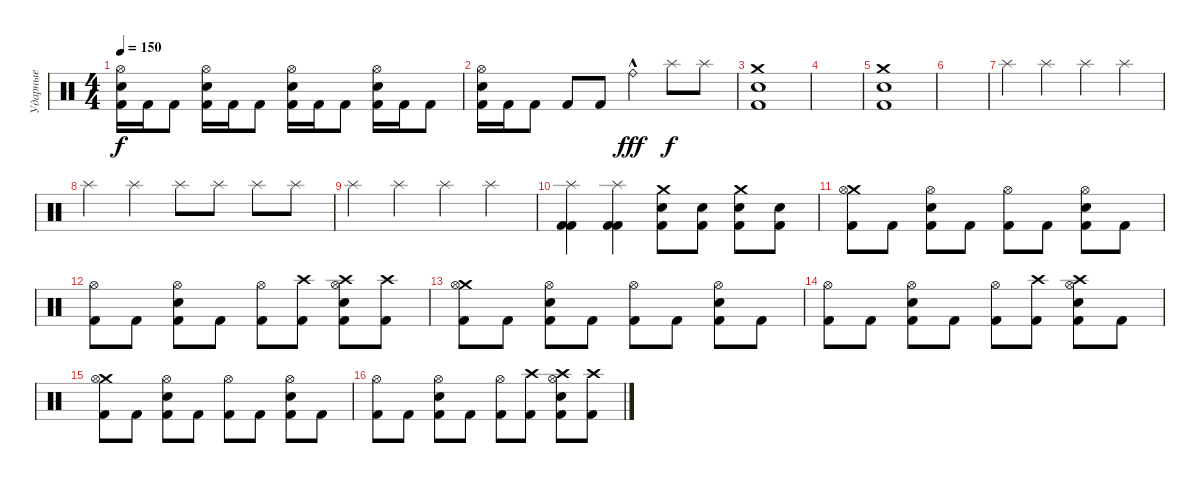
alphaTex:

\track ("Ударные" "Ударные") {instrument percussion}
\staff {score}
\articulation defaults
\ts (4 4)
\tempo 150
\clef neutral
\ks c
("Hi-Hat (open)" "Snare (hit) 2" "Kick (hit) 2").16{dy f} "Kick (hit) 2".16 "Kick (hit) 2".8 ("Hi-Hat (open)" "Snare (hit) 2" "Kick (hit) 2").16 "Kick (hit) 2".16 "Kick (hit) 2".8 ("Hi-Hat (open)" "Snare (hit) 2" "Kick (hit) 2").16 "Kick (hit) 2".16 "Kick (hit) 2".8 ("Hi-Hat (open)" "Snare (hit) 2" "Kick (hit) 2").16 "Kick (hit) 2".16 "Kick (hit) 2".8 |
("Hi-Hat (open)" "Snare (hit) 2" "Kick (hit) 2").16 "Kick (hit) 2".16 "Kick (hit) 2".8 "Kick (hit) 2".8 "Kick (hit) 2".8 "Ride (bell)"{hac}.4{dy fff} "Splash (hit)".8{dy f} "Splash (hit)".8 |
("Crash medium (hit)" "Snare (hit) 2" "Kick (hit) 2").1 |
|
("Crash medium (hit)" "Snare (hit) 2" "Kick (hit) 2").1 |
|
"Splash (hit)".4 "Splash (hit)".4 "Splash (hit)".4 "Splash (hit)".4 |
"Splash (hit)".4 "Splash (hit)".4 "Splash (hit)".8 "Splash (hit)".8 "Splash (hit)".8 "Splash (hit)".8 |
"Splash (hit)".4 "Splash (hit)".4 "Splash (hit)".4 "Splash (hit)".4 |
("Splash (hit)" "Kick (hit) 2" "Kick (hit) 2").4 ("Splash (hit)" "Kick (hit) 2" "Kick (hit) 2").4 ("Crash medium (hit)" "Snare (hit) 2" "Kick (hit) 2").8 ("Snare (hit) 2" "Kick (hit) 2").8 ("Crash medium (hit)" "Snare (hit) 2" "Kick (hit) 2").8 ("Snare (hit) 2" "Kick (hit) 2").8 |
("Crash medium (hit)" "Hi-Hat (open)" "Kick (hit) 2").8 "Kick (hit) 2".8 ("Hi-Hat (open)" "Snare (hit) 2" "Kick (hit) 2").8 "Kick (hit) 2".8 ("Hi-Hat (open)" "Kick (hit) 2").8 "Kick (hit) 2".8 ("Hi-Hat (open)" "Snare (hit) 2" "Kick (hit) 2").8 "Kick (hit) 2".8 |
("Hi-Hat (open)" "Kick (hit) 2").8 "Kick (hit) 2".8 ("Hi-Hat (open)" "Snare (hit) 2" "Kick (hit) 2").8 "Kick (hit) 2".8 ("Hi-Hat (open)" "Kick (hit) 2").8 ("Crash high (hit)" "Kick (hit) 2").8 ("Crash high (hit)" "Hi-Hat (open)" "Snare (hit) 2" "Kick (hit) 2").8 ("Crash high (hit)" "Kick (hit) 2").8 |
("Crash medium (hit)" "Hi-Hat (open)" "Kick (hit) 2").8 "Kick (hit) 2".8 ("Hi-Hat (open)" "Snare (hit) 2" "Kick (hit) 2").8 "Kick (hit) 2".8 ("Hi-Hat (open)" "Kick (hit) 2").8 "Kick (hit) 2".8 ("Hi-Hat (open)" "Snare (hit) 2" "Kick (hit) 2").8 "Kick (hit) 2".8 |
("Hi-Hat (open)" "Kick (hit) 2").8 "Kick (hit) 2".8 ("Hi-Hat (open)" "Snare (hit) 2" "Kick (hit) 2").8 "Kick (hit) 2".8 ("Hi-Hat (open)" "Kick (hit) 2").8 ("Crash high (hit)" "Kick (hit) 2").8 ("Crash high (hit)" "Hi-Hat (open)" "Snare (hit) 2" "Kick (hit) 2").8 "Kick (hit) 2".8 |
("Crash medium (hit)" "Hi-Hat (open)" "Kick (hit) 2").8 "Kick (hit) 2".8 ("Hi-Hat (open)" "Snare (hit) 2" "Kick (hit) 2").8 "Kick (hit) 2".8 ("Hi-Hat (open)" "Kick (hit) 2").8 "Kick (hit) 2".8 ("Hi-Hat (open)" "Snare (hit) 2" "Kick (hit) 2").8 "Kick (hit) 2".8 |
("Hi-Hat (open)" "Kick (hit) 2").8 "Kick (hit) 2".8 ("Hi-Hat (open)" "Snare (hit) 2" "Kick (hit) 2").8 "Kick (hit) 2".8 ("Hi-Hat (open)" "Kick (hit) 2").8 ("Crash high (hit)" "Kick (hit) 2").8 ("Crash high (hit)" "Hi-Hat (open)" "Snare (hit) 2" "Kick (hit) 2").8 ("Crash high (hit)" "Kick (hit) 2").8
